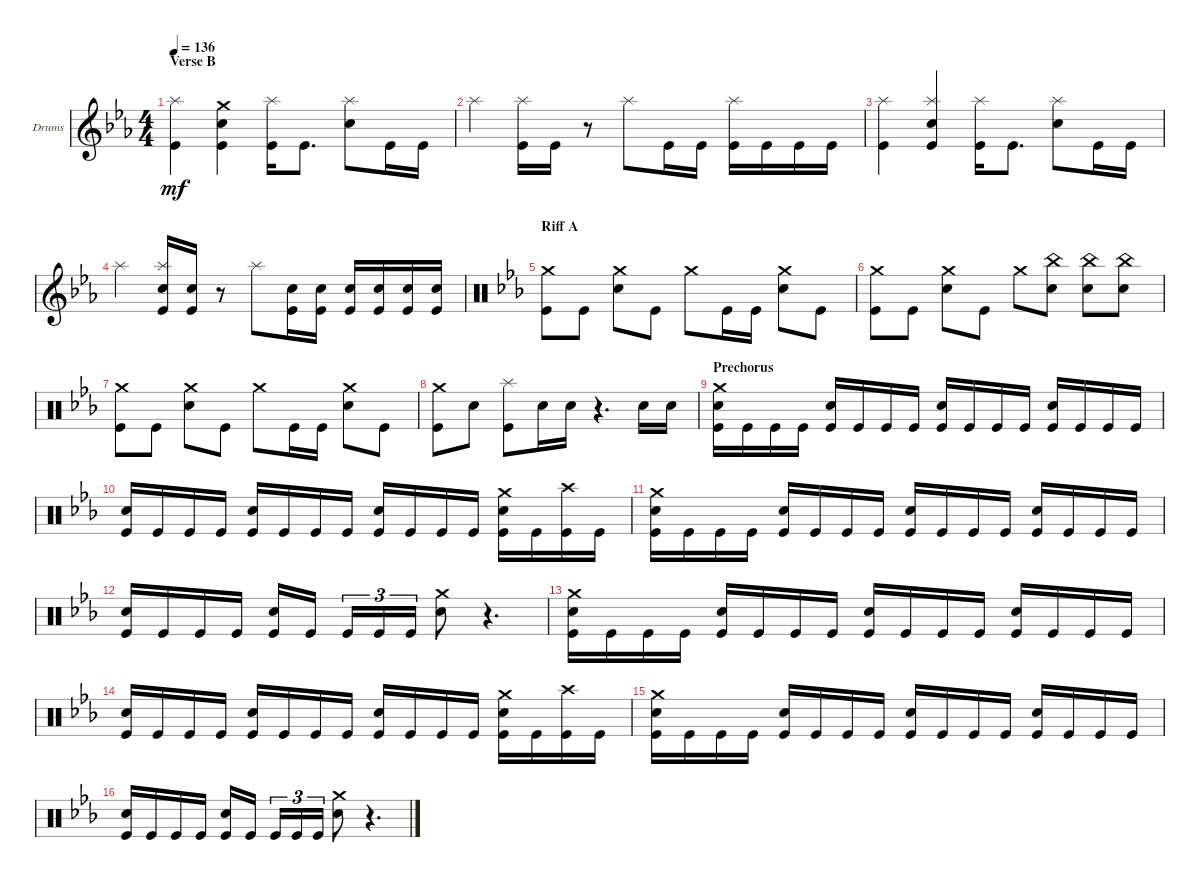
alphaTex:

\defaultSystemsLayout 4
\bracketExtendMode groupsimilarinstruments
\firstSystemTrackNameOrientation horizontal
\otherSystemsTrackNameOrientation horizontal
\track ("Drumkit" "Drums") {instrument percussion}
\staff {score}
\articulation defaults
\ts (4 4)
\section ("" "Verse B")
\tempo 136
\clef g2
\scale
0.333333
\ks cminor
("Kick (hit)" "Splash (hit)").4{dy mf} ("Kick (hit)" "Snare (hit) 2" "Crash medium (hit)").4 ("Kick (hit)" "Splash (hit)").16 "Kick (hit)".8{d} ("Snare (hit) 2" "Splash (hit)").8 "Kick (hit)".16 "Kick (hit)".16 |
\scale
0.333333 "Splash (hit)".4 ("Kick (hit)" "Splash (hit)").16 "Kick (hit)".16 r.8 "Splash (hit)".8 "Kick (hit)".16 "Kick (hit)".16 ("Kick (hit)" "Splash (hit)").16 "Kick (hit)".16 "Kick (hit)".16 "Kick (hit)".16 |
\scale
0.333333 ("Kick (hit)" "Splash (hit)").4 ("Kick (hit)" "Snare (hit) 2" "Splash (hit)").4 ("Kick (hit)" "Splash (hit)").16 "Kick (hit)".8{d} ("Snare (hit) 2" "Splash (hit)").8 "Kick (hit)".16 "Kick (hit)".16 |
\scale
0.333333 "Splash (hit)".4 ("Kick (hit)" "Snare (hit) 2" "Splash (hit)").16 ("Kick (hit)" "Snare (hit) 2").16 r.8 "Splash (hit)".8 ("Kick (hit)" "Snare (hit) 2").16 ("Kick (hit)" "Snare (hit) 2").16 ("Kick (hit)" "Snare (hit) 2").16 ("Kick (hit)" "Snare (hit) 2").16 ("Kick (hit)" "Snare (hit) 2").16 ("Kick (hit)" "Snare (hit) 2").16 |
\section ("" "Riff A")
\clef neutral
\scale
0.333333 ("Kick (hit)" "Crash medium (hit)").8 "Kick (hit)".8 ("Snare (hit) 2" "Crash medium (hit)").8 "Kick (hit)".8 "Crash medium (hit)".8 "Kick (hit)".16 "Kick (hit)".16 ("Snare (hit) 2" "Crash medium (hit)").8 "Kick (hit)".8 |
\scale
0.333333 ("Kick (hit)" "Crash medium (hit)").8 "Kick (hit)".8 ("Snare (hit) 2" "Crash medium (hit)").8 "Kick (hit)".8 "Crash medium (hit)".8 ("Snare (hit) 2" "China (hit)").8 ("Snare (hit) 2" "China (hit)").8 ("Snare (hit) 2" "China (hit)").8 |
\scale
0.333333 ("Kick (hit)" "Crash medium (hit)").8 "Kick (hit)".8 ("Snare (hit) 2" "Crash medium (hit)").8 "Kick (hit)".8 "Crash medium (hit)".8 "Kick (hit)".16 "Kick (hit)".16 ("Snare (hit) 2" "Crash medium (hit)").8 "Kick (hit)".8 |
\scale
0.333333 ("Kick (hit)" "Crash medium (hit)").8 "Snare (hit) 2".8 ("Kick (hit)" "Splash (hit)").8 "Snare (hit) 2".16 "Snare (hit) 2".16 r.4{d} "Snare (hit) 2".16 "Snare (hit) 2".16 |
\section ("" "Prechorus")
\scale
0.333333 ("Kick (hit)" "Snare (hit) 2" "Crash medium (hit)").16 "Kick (hit)".16 "Kick (hit)".16 "Kick (hit)".16 ("Kick (hit)" "Snare (hit) 2").16 "Kick (hit)".16 "Kick (hit)".16 "Kick (hit)".16 ("Kick (hit)" "Snare (hit) 2").16 "Kick (hit)".16 "Kick (hit)".16 "Kick (hit)".16 ("Kick (hit)" "Snare (hit) 2").16 "Kick (hit)".16 "Kick (hit)".16 "Kick (hit)".16 |
\scale
0.333333 ("Kick (hit)" "Snare (hit) 2").16 "Kick (hit)".16 "Kick (hit)".16 "Kick (hit)".16 ("Kick (hit)" "Snare (hit) 2").16 "Kick (hit)".16 "Kick (hit)".16 "Kick (hit)".16 ("Kick (hit)" "Snare (hit) 2").16 "Kick (hit)".16 "Kick (hit)".16 "Kick (hit)".16 ("Kick (hit)" "Snare (hit) 2" "Crash medium (hit)").16 "Kick (hit)".16 ("Kick (hit)" "Crash high (hit)").16 "Kick (hit)".16 |
\scale
0.333333 ("Kick (hit)" "Snare (hit) 2" "Crash medium (hit)").16 "Kick (hit)".16 "Kick (hit)".16 "Kick (hit)".16 ("Kick (hit)" "Snare (hit) 2").16 "Kick (hit)".16 "Kick (hit)".16 "Kick (hit)".16 ("Kick (hit)" "Snare (hit) 2").16 "Kick (hit)".16 "Kick (hit)".16 "Kick (hit)".16 ("Kick (hit)" "Snare (hit) 2").16 "Kick (hit)".16 "Kick (hit)".16 "Kick (hit)".16 |
\scale
0.333333 ("Kick (hit)" "Snare (hit) 2").16 "Kick (hit)".16 "Kick (hit)".16 "Kick (hit)".16 ("Kick (hit)" "Snare (hit) 2").16 "Kick (hit)".16 "Kick (hit)".16{tu (3 2)} "Kick (hit)".16{tu (3 2)} "Kick (hit)".16{tu (3 2)} ("Snare (hit) 2" "Crash medium (hit)").8 r.4{d} |
\scale
0.333333 ("Kick (hit)" "Snare (hit) 2" "Crash medium (hit)").16 "Kick (hit)".16 "Kick (hit)".16 "Kick (hit)".16 ("Kick (hit)" "Snare (hit) 2").16 "Kick (hit)".16 "Kick (hit)".16 "Kick (hit)".16 ("Kick (hit)" "Snare (hit) 2").16 "Kick (hit)".16 "Kick (hit)".16 "Kick (hit)".16 ("Kick (hit)" "Snare (hit) 2").16 "Kick (hit)".16 "Kick (hit)".16 "Kick (hit)".16 |
\scale
0.333333 ("Kick (hit)" "Snare (hit) 2").16 "Kick (hit)".16 "Kick (hit)".16 "Kick (hit)".16 ("Kick (hit)" "Snare (hit) 2").16 "Kick (hit)".16 "Kick (hit)".16 "Kick (hit)".16 ("Kick (hit)" "Snare (hit) 2").16 "Kick (hit)".16 "Kick (hit)".16 "Kick (hit)".16 ("Kick (hit)" "Snare (hit) 2" "Crash medium (hit)").16 "Kick (hit)".16 ("Kick (hit)" "Crash high (hit)").16 "Kick (hit)".16 |
\scale
0.333333 ("Kick (hit)" "Snare (hit) 2" "Crash medium (hit)").16 "Kick (hit)".16 "Kick (hit)".16 "Kick (hit)".16 ("Kick (hit)" "Snare (hit) 2").16 "Kick (hit)".16 "Kick (hit)".16 "Kick (hit)".16 ("Kick (hit)" "Snare (hit) 2").16 "Kick (hit)".16 "Kick (hit)".16 "Kick (hit)".16 ("Kick (hit)" "Snare (hit) 2").16 "Kick (hit)".16 "Kick (hit)".16 "Kick (hit)".16 |
\scale
0.333333 ("Kick (hit)" "Snare (hit) 2").16 "Kick (hit)".16 "Kick (hit)".16 "Kick (hit)".16 ("Kick (hit)" "Snare (hit) 2").16 "Kick (hit)".16 "Kick (hit)".16{tu (3 2)} "Kick (hit)".16{tu (3 2)} "Kick (hit)".16{tu (3 2)} ("Snare (hit) 2" "Crash medium (hit)").8 r.4{d}
